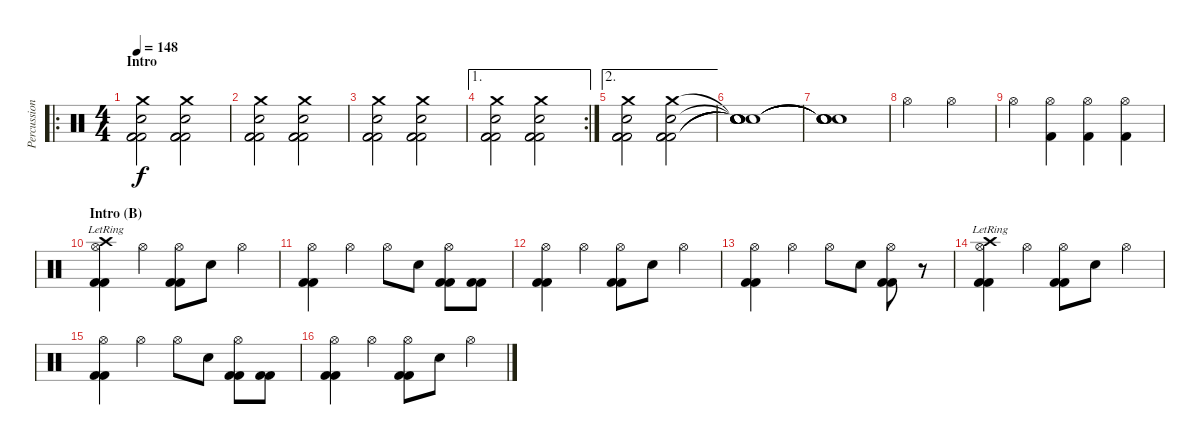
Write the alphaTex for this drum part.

\track ("Percussion" "Percussion") {instrument percussion}
\staff {score}
\articulation defaults
\ro
\ts (4 4)
\section ("" "Intro")
\tempo 148
\clef neutral
\ks c
("Crash medium (hit)" "Snare (hit) 2" "Kick (hit) 2" "Kick (hit) 2" "Kick (hit) 2").2{dy f} ("Crash medium (hit)" "Snare (hit) 2" "Kick (hit) 2" "Kick (hit) 2" "Kick (hit) 2").2 |
("Crash medium (hit)" "Snare (hit) 2" "Kick (hit) 2" "Kick (hit) 2" "Kick (hit) 2").2 ("Crash medium (hit)" "Snare (hit) 2" "Kick (hit) 2" "Kick (hit) 2" "Kick (hit) 2").2 |
("Crash medium (hit)" "Snare (hit) 2" "Kick (hit) 2" "Kick (hit) 2" "Kick (hit) 2").2 ("Crash medium (hit)" "Snare (hit) 2" "Kick (hit) 2" "Kick (hit) 2" "Kick (hit) 2").2 |
\ae 1
\rc 2
("Crash medium (hit)" "Snare (hit) 2" "Kick (hit) 2" "Kick (hit) 2" "Kick (hit) 2").2 ("Crash medium (hit)" "Snare (hit) 2" "Kick (hit) 2" "Kick (hit) 2" "Kick (hit) 2").2 |
\ae 2
("Crash medium (hit)" "Snare (hit) 2" "Kick (hit) 2" "Kick (hit) 2" "Kick (hit) 2").2 ("Crash medium (hit)" "Snare (hit) 2" "Kick (hit) 2" "Kick (hit) 2" "Kick (hit) 2").2 |
("Snare (hit)"{t} "Snare (hit)"{t} "Snare (hit)"{t} "Snare (hit)"{t} "Snare (hit)"{t}).1 |
("Snare (hit)"{t} "Snare (hit)"{t} "Snare (hit)"{t} "Snare (hit)"{t} "Snare (hit)"{t}).1 |
"Hi-Hat (open)".2 "Hi-Hat (open)".2 |
"Hi-Hat (open)".4 ("Hi-Hat (open)" "Kick (hit) 2").4 ("Hi-Hat (open)" "Kick (hit) 2").4 ("Hi-Hat (open)" "Kick (hit) 2").4 |
\section ("" "Intro (B)")
("Crash high (hit)"{lr} "Hi-Hat (open)" "Kick (hit) 2" "Kick (hit) 2").4 "Hi-Hat (open)".4 ("Hi-Hat (open)" "Kick (hit) 2" "Kick (hit) 2").8 "Snare (hit) 2".8 "Hi-Hat (open)".4 |
("Hi-Hat (open)" "Kick (hit) 2" "Kick (hit) 2").4 "Hi-Hat (open)".4 "Hi-Hat (open)".8 "Snare (hit) 2".8 ("Hi-Hat (open)" "Kick (hit) 2" "Kick (hit) 2").8 ("Kick (hit) 2" "Kick (hit) 2").8 |
("Hi-Hat (open)" "Kick (hit) 2" "Kick (hit) 2").4 "Hi-Hat (open)".4 ("Hi-Hat (open)" "Kick (hit) 2" "Kick (hit) 2").8 "Snare (hit) 2".8 "Hi-Hat (open)".4 |
("Hi-Hat (open)" "Kick (hit) 2" "Kick (hit) 2").4 "Hi-Hat (open)".4 "Hi-Hat (open)".8 "Snare (hit) 2".8 ("Hi-Hat (open)" "Kick (hit) 2" "Kick (hit) 2").8 r.8 |
("Crash high (hit)"{lr} "Hi-Hat (open)" "Kick (hit) 2" "Kick (hit) 2").4 "Hi-Hat (open)".4 ("Hi-Hat (open)" "Kick (hit) 2" "Kick (hit) 2").8 "Snare (hit) 2".8 "Hi-Hat (open)".4 |
("Hi-Hat (open)" "Kick (hit) 2" "Kick (hit) 2").4 "Hi-Hat (open)".4 "Hi-Hat (open)".8 "Snare (hit) 2".8 ("Hi-Hat (open)" "Kick (hit) 2" "Kick (hit) 2").8 ("Kick (hit) 2" "Kick (hit) 2").8 |
("Hi-Hat (open)" "Kick (hit) 2" "Kick (hit) 2").4 "Hi-Hat (open)".4 ("Hi-Hat (open)" "Kick (hit) 2" "Kick (hit) 2").8 "Snare (hit) 2".8 "Hi-Hat (open)".4
